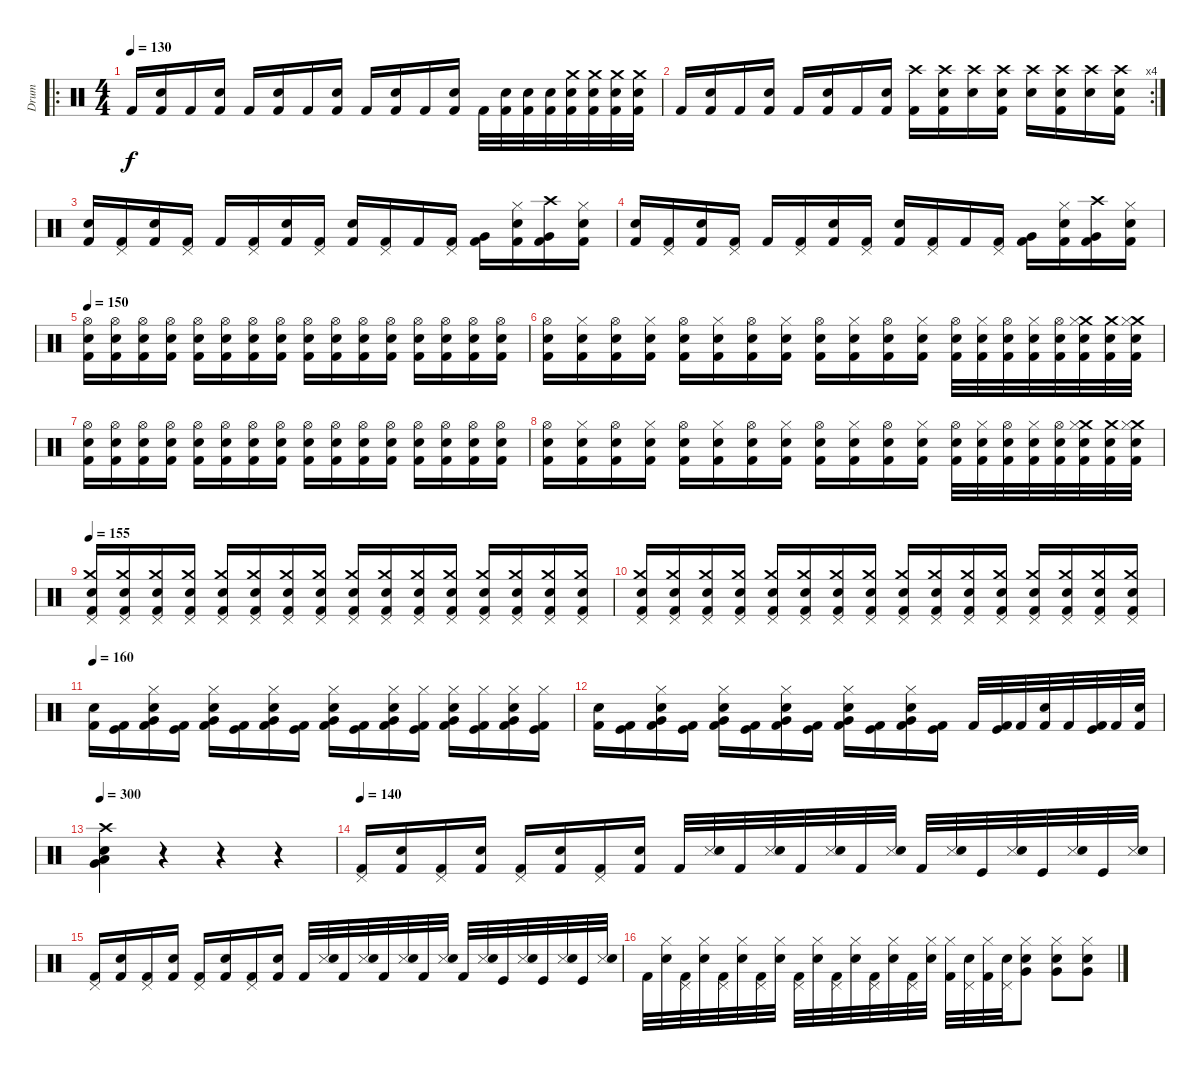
\track ("Drum" "Drum") {instrument percussion}
\staff {score}
\articulation defaults
\ro
\ts (4 4)
\tempo 130
\clef neutral
\ks c "Kick (hit) 2".16{dy f}
("Snare (hit) 2" "Kick (hit) 2").16 "Kick (hit) 2".16 ("Snare (hit) 2" "Kick (hit) 2").16 "Kick (hit) 2".16 ("Snare (hit) 2" "Kick (hit) 2").16 "Kick (hit) 2".16 ("Snare (hit) 2" "Kick (hit) 2").16 "Kick (hit) 2".16 ("Snare (hit) 2" "Kick (hit) 2").16 "Kick (hit) 2".16 ("Snare (hit) 2" "Kick (hit) 2").16 "Kick (hit) 2".32 ("Electric Snare (hit)" "Kick (hit) 2").32 ("Snare (hit) 2" "Kick (hit) 2").32 ("Electric Snare (hit)" "Kick (hit) 2").32 ("Crash medium (hit)" "Snare (hit) 2" "Kick (hit) 2").32 ("Crash medium (hit)" "Electric Snare (hit)" "Kick (hit) 2").32 ("Crash medium (hit)" "Snare (hit) 2" "Kick (hit) 2").32 ("Crash medium (hit)" "Electric Snare (hit)" "Kick (hit) 2").32 |
\rc 4 "Kick (hit) 2".16
("Snare (hit) 2" "Kick (hit) 2").16 "Kick (hit) 2".16 ("Snare (hit) 2" "Kick (hit) 2").16 "Kick (hit) 2".16 ("Snare (hit) 2" "Kick (hit) 2").16 "Kick (hit) 2".16 ("Snare (hit) 2" "Kick (hit) 2").16 ("Crash high (hit)" "Kick (hit) 2").16 ("Crash high (hit)" "Snare (hit) 2" "Kick (hit) 2").16 ("Crash high (hit)" "Snare (hit) 2").16 ("Crash high (hit)" "Snare (hit) 2" "Kick (hit) 2").16 ("Crash high (hit)" "Snare (hit) 2").16 ("Crash high (hit)" "Snare (hit) 2" "Kick (hit) 2").16 ("Crash high (hit)" "Snare (hit) 2").16 ("Crash high (hit)" "Snare (hit) 2" "Kick (hit) 2").16 |
("Electric Snare (hit)" "Kick (hit) 2").16 ("Pedal Hi-Hat (hit)" "Kick (hit) 2").16 ("Electric Snare (hit)" "Kick (hit) 2").16 ("Pedal Hi-Hat (hit)" "Kick (hit) 2").16 "Kick (hit) 2".16 ("Pedal Hi-Hat (hit)" "Kick (hit) 2").16 ("Electric Snare (hit)" "Kick (hit) 2").16 ("Pedal Hi-Hat (hit)" "Kick (hit) 2").16 ("Electric Snare (hit)" "Kick (hit) 2").16 ("Pedal Hi-Hat (hit)" "Kick (hit) 2").16 "Kick (hit) 2".16 ("Pedal Hi-Hat (hit)" "Kick (hit) 2").16 ("Very Low Tom (hit)" "Kick (hit) 2").16 ("Hi-Hat (closed)" "Snare (hit) 2" "Kick (hit) 2").16 ("Crash high (hit)" "Very Low Tom (hit)" "Kick (hit) 2").16 ("Hi-Hat (closed)" "Snare (hit) 2" "Kick (hit) 2").16 |
("Electric Snare (hit)" "Kick (hit) 2").16 ("Pedal Hi-Hat (hit)" "Kick (hit) 2").16 ("Electric Snare (hit)" "Kick (hit) 2").16 ("Pedal Hi-Hat (hit)" "Kick (hit) 2").16 "Kick (hit) 2".16 ("Pedal Hi-Hat (hit)" "Kick (hit) 2").16 ("Electric Snare (hit)" "Kick (hit) 2").16 ("Pedal Hi-Hat (hit)" "Kick (hit) 2").16 ("Electric Snare (hit)" "Kick (hit) 2").16 ("Pedal Hi-Hat (hit)" "Kick (hit) 2").16 "Kick (hit) 2".16 ("Pedal Hi-Hat (hit)" "Kick (hit) 2").16 ("Very Low Tom (hit)" "Kick (hit) 2").16 ("Hi-Hat (closed)" "Snare (hit) 2" "Kick (hit) 2").16 ("Crash high (hit)" "Very Low Tom (hit)" "Kick (hit) 2").16 ("Hi-Hat (closed)" "Snare (hit) 2" "Kick (hit) 2").16 |
\tempo 150
("Hi-Hat (open)" "Electric Snare (hit)" "Kick (hit) 2").16 ("Hi-Hat (open)" "Snare (hit) 2" "Kick (hit) 2").16 ("Hi-Hat (open)" "Electric Snare (hit)" "Kick (hit) 2").16 ("Hi-Hat (open)" "Snare (hit) 2" "Kick (hit) 2").16 ("Hi-Hat (open)" "Electric Snare (hit)" "Kick (hit) 2").16 ("Hi-Hat (open)" "Snare (hit) 2" "Kick (hit) 2").16 ("Hi-Hat (open)" "Electric Snare (hit)" "Kick (hit) 2").16 ("Hi-Hat (open)" "Snare (hit) 2" "Kick (hit) 2").16 ("Hi-Hat (open)" "Electric Snare (hit)" "Kick (hit) 2").16 ("Hi-Hat (open)" "Snare (hit) 2" "Kick (hit) 2").16 ("Hi-Hat (open)" "Electric Snare (hit)" "Kick (hit) 2").16 ("Hi-Hat (open)" "Snare (hit) 2" "Kick (hit) 2").16 ("Hi-Hat (open)" "Electric Snare (hit)" "Kick (hit) 2").16 ("Hi-Hat (open)" "Snare (hit) 2" "Kick (hit) 2").16 ("Hi-Hat (open)" "Electric Snare (hit)" "Kick (hit) 2").16 ("Hi-Hat (open)" "Snare (hit) 2" "Kick (hit) 2").16 |
("Hi-Hat (open)" "Snare (hit) 2" "Kick (hit) 2").16 ("Hi-Hat (closed)" "Snare (hit) 2" "Kick (hit) 2").16 ("Hi-Hat (open)" "Snare (hit) 2" "Kick (hit) 2").16 ("Hi-Hat (closed)" "Snare (hit) 2" "Kick (hit) 2").16 ("Hi-Hat (open)" "Snare (hit) 2" "Kick (hit) 2").16 ("Hi-Hat (closed)" "Snare (hit) 2" "Kick (hit) 2").16 ("Hi-Hat (open)" "Snare (hit) 2" "Kick (hit) 2").16 ("Hi-Hat (closed)" "Snare (hit) 2" "Kick (hit) 2").16 ("Hi-Hat (open)" "Snare (hit) 2" "Kick (hit) 2").16 ("Hi-Hat (closed)" "Snare (hit) 2" "Kick (hit) 2").16 ("Hi-Hat (open)" "Snare (hit) 2" "Kick (hit) 2").16 ("Hi-Hat (closed)" "Snare (hit) 2" "Kick (hit) 2").16 ("Hi-Hat (open)" "Snare (hit) 2" "Kick (hit) 2").32 ("Hi-Hat (closed)" "Electric Snare (hit)" "Kick (hit) 2").32 ("Hi-Hat (open)" "Snare (hit) 2" "Kick (hit) 2").32 ("Hi-Hat (closed)" "Electric Snare (hit)" "Kick (hit) 2").32 ("Hi-Hat (open)" "Snare (hit) 2" "Kick (hit) 2").32 ("Crash medium (hit)" "Hi-Hat (closed)" "Electric Snare (hit)" "Kick (hit) 2").32 ("Crash medium (hit)" "Snare (hit) 2" "Kick (hit) 2").32 ("Crash medium (hit)" "Hi-Hat (closed)" "Electric Snare (hit)" "Kick (hit) 2").32 |
("Hi-Hat (open)" "Electric Snare (hit)" "Kick (hit) 2").16 ("Hi-Hat (open)" "Snare (hit) 2" "Kick (hit) 2").16 ("Hi-Hat (open)" "Electric Snare (hit)" "Kick (hit) 2").16 ("Hi-Hat (open)" "Snare (hit) 2" "Kick (hit) 2").16 ("Hi-Hat (open)" "Electric Snare (hit)" "Kick (hit) 2").16 ("Hi-Hat (open)" "Snare (hit) 2" "Kick (hit) 2").16 ("Hi-Hat (open)" "Electric Snare (hit)" "Kick (hit) 2").16 ("Hi-Hat (open)" "Snare (hit) 2" "Kick (hit) 2").16 ("Hi-Hat (open)" "Electric Snare (hit)" "Kick (hit) 2").16 ("Hi-Hat (open)" "Snare (hit) 2" "Kick (hit) 2").16 ("Hi-Hat (open)" "Electric Snare (hit)" "Kick (hit) 2").16 ("Hi-Hat (open)" "Snare (hit) 2" "Kick (hit) 2").16 ("Hi-Hat (open)" "Electric Snare (hit)" "Kick (hit) 2").16 ("Hi-Hat (open)" "Snare (hit) 2" "Kick (hit) 2").16 ("Hi-Hat (open)" "Electric Snare (hit)" "Kick (hit) 2").16 ("Hi-Hat (open)" "Snare (hit) 2" "Kick (hit) 2").16 |
("Hi-Hat (open)" "Snare (hit) 2" "Kick (hit) 2").16 ("Hi-Hat (closed)" "Snare (hit) 2" "Kick (hit) 2").16 ("Hi-Hat (open)" "Snare (hit) 2" "Kick (hit) 2").16 ("Hi-Hat (closed)" "Snare (hit) 2" "Kick (hit) 2").16 ("Hi-Hat (open)" "Snare (hit) 2" "Kick (hit) 2").16 ("Hi-Hat (closed)" "Snare (hit) 2" "Kick (hit) 2").16 ("Hi-Hat (open)" "Snare (hit) 2" "Kick (hit) 2").16 ("Hi-Hat (closed)" "Snare (hit) 2" "Kick (hit) 2").16 ("Hi-Hat (open)" "Snare (hit) 2" "Kick (hit) 2").16 ("Hi-Hat (closed)" "Snare (hit) 2" "Kick (hit) 2").16 ("Hi-Hat (open)" "Snare (hit) 2" "Kick (hit) 2").16 ("Hi-Hat (closed)" "Snare (hit) 2" "Kick (hit) 2").16 ("Hi-Hat (open)" "Snare (hit) 2" "Kick (hit) 2").32 ("Hi-Hat (closed)" "Electric Snare (hit)" "Kick (hit) 2").32 ("Hi-Hat (open)" "Snare (hit) 2" "Kick (hit) 2").32 ("Hi-Hat (closed)" "Electric Snare (hit)" "Kick (hit) 2").32 ("Hi-Hat (open)" "Snare (hit) 2" "Kick (hit) 2").32 ("Crash medium (hit)" "Hi-Hat (closed)" "Electric Snare (hit)" "Kick (hit) 2").32 ("Crash medium (hit)" "Snare (hit) 2" "Kick (hit) 2").32 ("Crash medium (hit)" "Hi-Hat (closed)" "Electric Snare (hit)" "Kick (hit) 2").32 |
\tempo 155
("Crash medium (hit)" "Pedal Hi-Hat (hit)" "Electric Snare (hit)" "Kick (hit) 2").16 ("Crash medium (hit)" "Pedal Hi-Hat (hit)" "Electric Snare (hit)" "Kick (hit) 2").16 ("Crash medium (hit)" "Pedal Hi-Hat (hit)" "Electric Snare (hit)" "Kick (hit) 2").16 ("Crash medium (hit)" "Pedal Hi-Hat (hit)" "Electric Snare (hit)" "Kick (hit) 2").16 ("Crash medium (hit)" "Pedal Hi-Hat (hit)" "Electric Snare (hit)" "Kick (hit) 2").16 ("Crash medium (hit)" "Pedal Hi-Hat (hit)" "Electric Snare (hit)" "Kick (hit) 2").16 ("Crash medium (hit)" "Pedal Hi-Hat (hit)" "Electric Snare (hit)" "Kick (hit) 2").16 ("Crash medium (hit)" "Pedal Hi-Hat (hit)" "Electric Snare (hit)" "Kick (hit) 2").16 ("Crash medium (hit)" "Pedal Hi-Hat (hit)" "Electric Snare (hit)" "Kick (hit) 2").16 ("Crash medium (hit)" "Pedal Hi-Hat (hit)" "Electric Snare (hit)" "Kick (hit) 2").16 ("Crash medium (hit)" "Pedal Hi-Hat (hit)" "Electric Snare (hit)" "Kick (hit) 2").16 ("Crash medium (hit)" "Pedal Hi-Hat (hit)" "Electric Snare (hit)" "Kick (hit) 2").16 ("Crash medium (hit)" "Pedal Hi-Hat (hit)" "Electric Snare (hit)" "Kick (hit) 2").16 ("Crash medium (hit)" "Pedal Hi-Hat (hit)" "Electric Snare (hit)" "Kick (hit) 2").16 ("Crash medium (hit)" "Pedal Hi-Hat (hit)" "Electric Snare (hit)" "Kick (hit) 2").16 ("Crash medium (hit)" "Pedal Hi-Hat (hit)" "Electric Snare (hit)" "Kick (hit) 2").16 |
("Crash medium (hit)" "Pedal Hi-Hat (hit)" "Electric Snare (hit)" "Kick (hit) 2").16 ("Crash medium (hit)" "Pedal Hi-Hat (hit)" "Electric Snare (hit)" "Kick (hit) 2").16 ("Crash medium (hit)" "Pedal Hi-Hat (hit)" "Electric Snare (hit)" "Kick (hit) 2").16 ("Crash medium (hit)" "Pedal Hi-Hat (hit)" "Electric Snare (hit)" "Kick (hit) 2").16 ("Crash medium (hit)" "Pedal Hi-Hat (hit)" "Electric Snare (hit)" "Kick (hit) 2").16 ("Crash medium (hit)" "Pedal Hi-Hat (hit)" "Electric Snare (hit)" "Kick (hit) 2").16 ("Crash medium (hit)" "Pedal Hi-Hat (hit)" "Electric Snare (hit)" "Kick (hit) 2").16 ("Crash medium (hit)" "Pedal Hi-Hat (hit)" "Electric Snare (hit)" "Kick (hit) 2").16 ("Crash medium (hit)" "Pedal Hi-Hat (hit)" "Electric Snare (hit)" "Kick (hit) 2").16 ("Crash medium (hit)" "Pedal Hi-Hat (hit)" "Electric Snare (hit)" "Kick (hit) 2").16 ("Crash medium (hit)" "Pedal Hi-Hat (hit)" "Electric Snare (hit)" "Kick (hit) 2").16 ("Crash medium (hit)" "Pedal Hi-Hat (hit)" "Electric Snare (hit)" "Kick (hit) 2").16 ("Crash medium (hit)" "Pedal Hi-Hat (hit)" "Electric Snare (hit)" "Kick (hit) 2").16 ("Crash medium (hit)" "Pedal Hi-Hat (hit)" "Electric Snare (hit)" "Kick (hit) 2").16 ("Crash medium (hit)" "Pedal Hi-Hat (hit)" "Electric Snare (hit)" "Kick (hit) 2").16 ("Crash medium (hit)" "Pedal Hi-Hat (hit)" "Electric Snare (hit)" "Kick (hit) 2").16 |
\tempo 160
("Electric Snare (hit)" "Kick (hit) 2").16 ("Kick (hit)" "Kick (hit) 2").16 ("Hi-Hat (closed)" "Very Low Tom (hit)" "Electric Snare (hit)" "Kick (hit) 2").16 ("Kick (hit)" "Kick (hit) 2").16 ("Hi-Hat (closed)" "Very Low Tom (hit)" "Electric Snare (hit)" "Kick (hit) 2").16 ("Kick (hit)" "Kick (hit) 2").16 ("Hi-Hat (closed)" "Very Low Tom (hit)" "Electric Snare (hit)" "Kick (hit) 2").16 ("Kick (hit)" "Kick (hit) 2").16 ("Hi-Hat (closed)" "Very Low Tom (hit)" "Electric Snare (hit)" "Kick (hit) 2").16 ("Kick (hit)" "Kick (hit) 2").16 ("Hi-Hat (closed)" "Very Low Tom (hit)" "Electric Snare (hit)" "Kick (hit) 2").16 ("Hi-Hat (closed)" "Kick (hit)" "Kick (hit) 2").16 ("Hi-Hat (closed)" "Very Low Tom (hit)" "Electric Snare (hit)" "Kick (hit) 2").16 ("Hi-Hat (closed)" "Kick (hit)" "Kick (hit) 2").16 ("Hi-Hat (closed)" "Very Low Tom (hit)" "Electric Snare (hit)" "Kick (hit) 2").16 ("Hi-Hat (closed)" "Kick (hit)" "Kick (hit) 2").16 |
("Electric Snare (hit)" "Kick (hit) 2").16 ("Kick (hit)" "Kick (hit) 2").16 ("Hi-Hat (closed)" "Very Low Tom (hit)" "Electric Snare (hit)" "Kick (hit) 2").16 ("Kick (hit)" "Kick (hit) 2").16 ("Hi-Hat (closed)" "Very Low Tom (hit)" "Electric Snare (hit)" "Kick (hit) 2").16 ("Kick (hit)" "Kick (hit) 2").16 ("Hi-Hat (closed)" "Very Low Tom (hit)" "Electric Snare (hit)" "Kick (hit) 2").16 ("Kick (hit)" "Kick (hit) 2").16 ("Hi-Hat (closed)" "Very Low Tom (hit)" "Electric Snare (hit)" "Kick (hit) 2").16 ("Kick (hit)" "Kick (hit) 2").16 ("Hi-Hat (closed)" "Very Low Tom (hit)" "Electric Snare (hit)" "Kick (hit) 2").16 ("Kick (hit)" "Kick (hit) 2").16 "Kick (hit) 2".32 ("Kick (hit)" "Kick (hit) 2").32 "Kick (hit) 2".32 ("Electric Snare (hit)" "Kick (hit) 2").32 "Kick (hit) 2".32 ("Kick (hit)" "Kick (hit) 2").32 "Kick (hit) 2".32 ("Electric Snare (hit)" "Kick (hit) 2").32 |
\tempo 300
("Crash high (hit)" "Electric Snare (hit)" "Very Low Tom (hit)" "Low Tom (hit)").4 r.4 r.4 r.4 |
\tempo 140
("Pedal Hi-Hat (hit)" "Kick (hit) 2").16 ("Electric Snare (hit)" "Kick (hit) 2").16 ("Pedal Hi-Hat (hit)" "Kick (hit) 2").16 ("Electric Snare (hit)" "Kick (hit) 2").16 ("Pedal Hi-Hat (hit)" "Kick (hit) 2").16 ("Electric Snare (hit)" "Kick (hit) 2").16 ("Pedal Hi-Hat (hit)" "Kick (hit) 2").16 ("Electric Snare (hit)" "Kick (hit) 2").16 "Kick (hit) 2".32 ("Metronome (hit)" "Electric Snare (hit)").32 "Kick (hit) 2".32 ("Metronome (hit)" "Electric Snare (hit)").32 "Kick (hit) 2".32 ("Metronome (hit)" "Electric Snare (hit)").32 "Kick (hit) 2".32 ("Metronome (hit)" "Electric Snare (hit)").32 "Kick (hit) 2".32 ("Metronome (hit)" "Electric Snare (hit)").32 "Kick (hit)".32 ("Metronome (hit)" "Electric Snare (hit)").32 "Kick (hit)".32 ("Metronome (hit)" "Electric Snare (hit)").32 "Kick (hit)".32 ("Metronome (hit)" "Electric Snare (hit)").32 |
("Pedal Hi-Hat (hit)" "Kick (hit) 2").16 ("Electric Snare (hit)" "Kick (hit) 2").16 ("Pedal Hi-Hat (hit)" "Kick (hit) 2").16 ("Electric Snare (hit)" "Kick (hit) 2").16 ("Pedal Hi-Hat (hit)" "Kick (hit) 2").16 ("Electric Snare (hit)" "Kick (hit) 2").16 ("Pedal Hi-Hat (hit)" "Kick (hit) 2").16 ("Electric Snare (hit)" "Kick (hit) 2").16 "Kick (hit) 2".32 ("Metronome (hit)" "Electric Snare (hit)").32 "Kick (hit) 2".32 ("Metronome (hit)" "Electric Snare (hit)").32 "Kick (hit) 2".32 ("Metronome (hit)" "Electric Snare (hit)").32 "Kick (hit) 2".32 ("Metronome (hit)" "Electric Snare (hit)").32 "Kick (hit) 2".32 ("Metronome (hit)" "Electric Snare (hit)").32 "Kick (hit)".32 ("Metronome (hit)" "Electric Snare (hit)").32 "Kick (hit)".32 ("Metronome (hit)" "Electric Snare (hit)").32 "Kick (hit)".32 ("Metronome (hit)" "Electric Snare (hit)").32 |
"Kick (hit) 2".32 ("Hi-Hat (closed)" "Electric Snare (hit)").32 ("Pedal Hi-Hat (hit)" "Kick (hit) 2").32 ("Hi-Hat (closed)" "Electric Snare (hit)").32 ("Pedal Hi-Hat (hit)" "Kick (hit) 2").32 ("Hi-Hat (closed)" "Electric Snare (hit)").32 ("Pedal Hi-Hat (hit)" "Kick (hit) 2").32 ("Hi-Hat (closed)" "Electric Snare (hit)").32 ("Pedal Hi-Hat (hit)" "Kick (hit) 2").32 ("Hi-Hat (closed)" "Electric Snare (hit)").32 ("Pedal Hi-Hat (hit)" "Kick (hit) 2").32 ("Hi-Hat (closed)" "Electric Snare (hit)").32 ("Pedal Hi-Hat (hit)" "Kick (hit) 2").32 ("Hi-Hat (closed)" "Electric Snare (hit)").32 ("Pedal Hi-Hat (hit)" "Kick (hit) 2").32 ("Hi-Hat (closed)" "Electric Snare (hit)").32 ("Hi-Hat (closed)" "Kick (hit) 2").32 ("Pedal Hi-Hat (hit)" "Electric Snare (hit)").32 ("Hi-Hat (closed)" "Kick (hit) 2").32 ("Pedal Hi-Hat (hit)" "Electric Snare (hit)").32 ("Hi-Hat (closed)" "Very Low Tom (hit)" "Electric Snare (hit)").8 ("Hi-Hat (closed)" "Very Low Tom (hit)" "Electric Snare (hit)").8 ("Hi-Hat (closed)" "Very Low Tom (hit)" "Electric Snare (hit)").8
